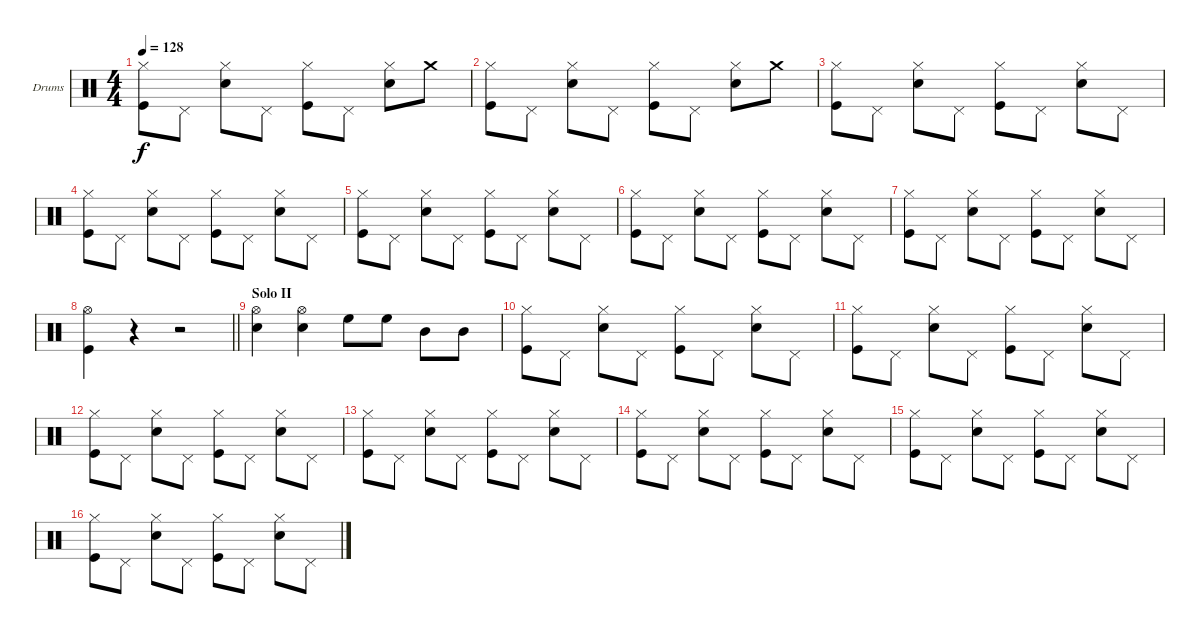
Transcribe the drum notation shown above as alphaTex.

\bracketExtendMode groupsimilarinstruments
\firstSystemTrackNameOrientation horizontal
\otherSystemsTrackNameOrientation horizontal
\track ("Drumkit" "Drums") {instrument percussion}
\staff {score}
\articulation defaults
\ts (4 4)
\tempo 128
\clef neutral
\ks c
("Hi-Hat (closed)" "Kick (hit)").8{dy f} "Pedal Hi-Hat (hit)".8 ("Hi-Hat (closed)" "Snare (hit) 2").8 "Pedal Hi-Hat (hit)".8 ("Hi-Hat (closed)" "Kick (hit)").8 "Pedal Hi-Hat (hit)".8 ("Hi-Hat (closed)" "Snare (hit) 2").8 "Crash medium (hit)".8 |
("Hi-Hat (closed)" "Kick (hit)").8 "Pedal Hi-Hat (hit)".8 ("Hi-Hat (closed)" "Snare (hit) 2").8 "Pedal Hi-Hat (hit)".8 ("Hi-Hat (closed)" "Kick (hit)").8 "Pedal Hi-Hat (hit)".8 ("Hi-Hat (closed)" "Snare (hit) 2").8 "Crash medium (hit)".8 |
("Hi-Hat (closed)" "Kick (hit)").8 "Pedal Hi-Hat (hit)".8 ("Hi-Hat (closed)" "Snare (hit) 2").8 "Pedal Hi-Hat (hit)".8 ("Hi-Hat (closed)" "Kick (hit)").8 "Pedal Hi-Hat (hit)".8 ("Hi-Hat (closed)" "Snare (hit) 2").8 "Pedal Hi-Hat (hit)".8 |
("Hi-Hat (closed)" "Kick (hit)").8 "Pedal Hi-Hat (hit)".8 ("Hi-Hat (closed)" "Snare (hit) 2").8 "Pedal Hi-Hat (hit)".8 ("Hi-Hat (closed)" "Kick (hit)").8 "Pedal Hi-Hat (hit)".8 ("Hi-Hat (closed)" "Snare (hit) 2").8 "Pedal Hi-Hat (hit)".8 |
("Hi-Hat (closed)" "Kick (hit)").8 "Pedal Hi-Hat (hit)".8 ("Hi-Hat (closed)" "Snare (hit) 2").8 "Pedal Hi-Hat (hit)".8 ("Hi-Hat (closed)" "Kick (hit)").8 "Pedal Hi-Hat (hit)".8 ("Hi-Hat (closed)" "Snare (hit) 2").8 "Pedal Hi-Hat (hit)".8 |
("Hi-Hat (closed)" "Kick (hit)").8 "Pedal Hi-Hat (hit)".8 ("Hi-Hat (closed)" "Snare (hit) 2").8 "Pedal Hi-Hat (hit)".8 ("Hi-Hat (closed)" "Kick (hit)").8 "Pedal Hi-Hat (hit)".8 ("Hi-Hat (closed)" "Snare (hit) 2").8 "Pedal Hi-Hat (hit)".8 |
("Hi-Hat (closed)" "Kick (hit)").8 "Pedal Hi-Hat (hit)".8 ("Hi-Hat (closed)" "Snare (hit) 2").8 "Pedal Hi-Hat (hit)".8 ("Hi-Hat (closed)" "Kick (hit)").8 "Pedal Hi-Hat (hit)".8 ("Hi-Hat (closed)" "Snare (hit) 2").8 "Pedal Hi-Hat (hit)".8 |
\barLineRight lightlight
("Hi-Hat (open)" "Kick (hit)").4 r.4 r.2 |
\section ("" "Solo II")
("Hi-Hat (open)" "Snare (hit) 2").4 ("Hi-Hat (open)" "Snare (hit) 2").4 "High Floor Tom (hit)".8 "High Floor Tom (hit)".8 "Mid Tom (hit)".8 "Mid Tom (hit)".8 |
("Hi-Hat (closed)" "Kick (hit)").8 "Pedal Hi-Hat (hit)".8 ("Hi-Hat (closed)" "Snare (hit) 2").8 "Pedal Hi-Hat (hit)".8 ("Hi-Hat (closed)" "Kick (hit)").8 "Pedal Hi-Hat (hit)".8 ("Hi-Hat (closed)" "Snare (hit) 2").8 "Pedal Hi-Hat (hit)".8 |
("Hi-Hat (closed)" "Kick (hit)").8 "Pedal Hi-Hat (hit)".8 ("Hi-Hat (closed)" "Snare (hit) 2").8 "Pedal Hi-Hat (hit)".8 ("Hi-Hat (closed)" "Kick (hit)").8 "Pedal Hi-Hat (hit)".8 ("Hi-Hat (closed)" "Snare (hit) 2").8 "Pedal Hi-Hat (hit)".8 |
("Hi-Hat (closed)" "Kick (hit)").8 "Pedal Hi-Hat (hit)".8 ("Hi-Hat (closed)" "Snare (hit) 2").8 "Pedal Hi-Hat (hit)".8 ("Hi-Hat (closed)" "Kick (hit)").8 "Pedal Hi-Hat (hit)".8 ("Hi-Hat (closed)" "Snare (hit) 2").8 "Pedal Hi-Hat (hit)".8 |
("Hi-Hat (closed)" "Kick (hit)").8 "Pedal Hi-Hat (hit)".8 ("Hi-Hat (closed)" "Snare (hit) 2").8 "Pedal Hi-Hat (hit)".8 ("Hi-Hat (closed)" "Kick (hit)").8 "Pedal Hi-Hat (hit)".8 ("Hi-Hat (closed)" "Snare (hit) 2").8 "Pedal Hi-Hat (hit)".8 |
("Hi-Hat (closed)" "Kick (hit)").8 "Pedal Hi-Hat (hit)".8 ("Hi-Hat (closed)" "Snare (hit) 2").8 "Pedal Hi-Hat (hit)".8 ("Hi-Hat (closed)" "Kick (hit)").8 "Pedal Hi-Hat (hit)".8 ("Hi-Hat (closed)" "Snare (hit) 2").8 "Pedal Hi-Hat (hit)".8 |
("Hi-Hat (closed)" "Kick (hit)").8 "Pedal Hi-Hat (hit)".8 ("Hi-Hat (closed)" "Snare (hit) 2").8 "Pedal Hi-Hat (hit)".8 ("Hi-Hat (closed)" "Kick (hit)").8 "Pedal Hi-Hat (hit)".8 ("Hi-Hat (closed)" "Snare (hit) 2").8 "Pedal Hi-Hat (hit)".8 |
("Hi-Hat (closed)" "Kick (hit)").8 "Pedal Hi-Hat (hit)".8 ("Hi-Hat (closed)" "Snare (hit) 2").8 "Pedal Hi-Hat (hit)".8 ("Hi-Hat (closed)" "Kick (hit)").8 "Pedal Hi-Hat (hit)".8 ("Hi-Hat (closed)" "Snare (hit) 2").8 "Pedal Hi-Hat (hit)".8
